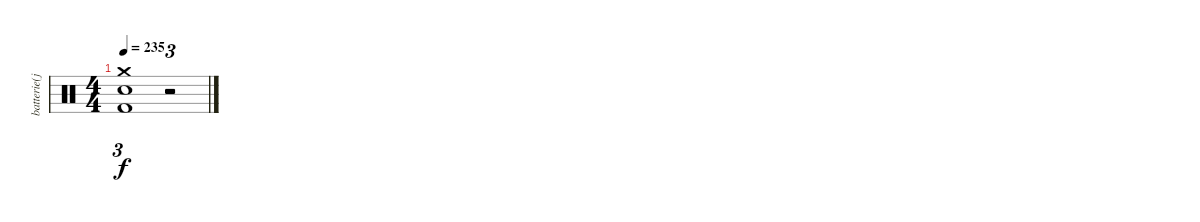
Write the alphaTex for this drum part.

\track ("batterie(jeff)" "batterie(j") {instrument percussion}
\staff {score}
\articulation defaults
\ts (4 4)
\tempo 235
\clef neutral
\ks c
("Crash medium (hit)"{t} "Snare (hit) 2"{t} "Kick (hit) 2"{t}).1{tu (3 2) dy f} r.2{tu (3 2)}
